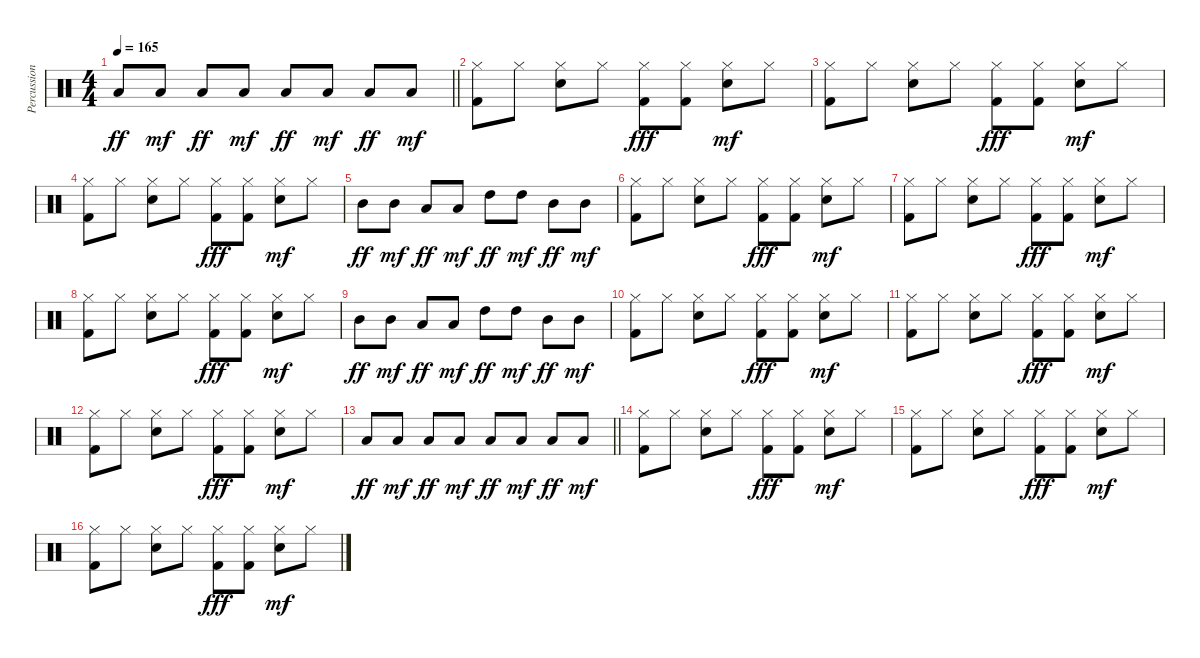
\track ("Percussion" "Percussion") {instrument percussion}
\staff {score}
\articulation defaults
\ts (4 4)
\tempo 165
\clef neutral
\barLineRight lightlight
\ks c "Low Tom (hit)".8{dy ff} "Low Tom (hit)".8{dy mf} "Low Tom (hit)".8{dy ff} "Low Tom (hit)".8{dy mf} "Low Tom (hit)".8{dy ff} "Low Tom (hit)".8{dy mf} "Low Tom (hit)".8{dy ff} "Low Tom (hit)".8{dy mf}
|
("Kick (hit) 2" "Hi-Hat (closed)").8 "Hi-Hat (closed)".8 ("Hi-Hat (closed)" "Electric Snare (hit)").8 "Hi-Hat (closed)".8 ("Hi-Hat (closed)" "Kick (hit) 2").8{dy fff} ("Hi-Hat (closed)" "Kick (hit) 2").8 ("Hi-Hat (closed)" "Electric Snare (hit)").8{dy mf} "Hi-Hat (closed)".8 |
("Kick (hit) 2" "Hi-Hat (closed)").8 "Hi-Hat (closed)".8 ("Hi-Hat (closed)" "Electric Snare (hit)").8 "Hi-Hat (closed)".8 ("Hi-Hat (closed)" "Kick (hit) 2").8{dy fff} ("Hi-Hat (closed)" "Kick (hit) 2").8 ("Hi-Hat (closed)" "Electric Snare (hit)").8{dy mf} "Hi-Hat (closed)".8 |
("Kick (hit) 2" "Hi-Hat (closed)").8 "Hi-Hat (closed)".8 ("Hi-Hat (closed)" "Electric Snare (hit)").8 "Hi-Hat (closed)".8 ("Hi-Hat (closed)" "Kick (hit) 2").8{dy fff} ("Hi-Hat (closed)" "Kick (hit) 2").8 ("Hi-Hat (closed)" "Electric Snare (hit)").8{dy mf} "Hi-Hat (closed)".8 |
"Mid Tom (hit)".8{dy ff} "Mid Tom (hit)".8{dy mf} "Low Tom (hit)".8{dy ff} "Low Tom (hit)".8{dy mf} "High Tom (hit)".8{dy ff} "High Tom (hit)".8{dy mf} "Mid Tom (hit)".8{dy ff} "Mid Tom (hit)".8{dy mf} |
("Kick (hit) 2" "Hi-Hat (closed)").8 "Hi-Hat (closed)".8 ("Hi-Hat (closed)" "Electric Snare (hit)").8 "Hi-Hat (closed)".8 ("Hi-Hat (closed)" "Kick (hit) 2").8{dy fff} ("Hi-Hat (closed)" "Kick (hit) 2").8 ("Hi-Hat (closed)" "Electric Snare (hit)").8{dy mf} "Hi-Hat (closed)".8 |
("Kick (hit) 2" "Hi-Hat (closed)").8 "Hi-Hat (closed)".8 ("Hi-Hat (closed)" "Electric Snare (hit)").8 "Hi-Hat (closed)".8 ("Hi-Hat (closed)" "Kick (hit) 2").8{dy fff} ("Hi-Hat (closed)" "Kick (hit) 2").8 ("Hi-Hat (closed)" "Electric Snare (hit)").8{dy mf} "Hi-Hat (closed)".8 |
("Kick (hit) 2" "Hi-Hat (closed)").8 "Hi-Hat (closed)".8 ("Hi-Hat (closed)" "Electric Snare (hit)").8 "Hi-Hat (closed)".8 ("Hi-Hat (closed)" "Kick (hit) 2").8{dy fff} ("Hi-Hat (closed)" "Kick (hit) 2").8 ("Hi-Hat (closed)" "Electric Snare (hit)").8{dy mf} "Hi-Hat (closed)".8 |
"Mid Tom (hit)".8{dy ff} "Mid Tom (hit)".8{dy mf} "Low Tom (hit)".8{dy ff} "Low Tom (hit)".8{dy mf} "High Tom (hit)".8{dy ff} "High Tom (hit)".8{dy mf} "Mid Tom (hit)".8{dy ff} "Mid Tom (hit)".8{dy mf} |
("Kick (hit) 2" "Hi-Hat (closed)").8 "Hi-Hat (closed)".8 ("Hi-Hat (closed)" "Electric Snare (hit)").8 "Hi-Hat (closed)".8 ("Hi-Hat (closed)" "Kick (hit) 2").8{dy fff} ("Hi-Hat (closed)" "Kick (hit) 2").8 ("Hi-Hat (closed)" "Electric Snare (hit)").8{dy mf} "Hi-Hat (closed)".8 |
("Kick (hit) 2" "Hi-Hat (closed)").8 "Hi-Hat (closed)".8 ("Hi-Hat (closed)" "Electric Snare (hit)").8 "Hi-Hat (closed)".8 ("Hi-Hat (closed)" "Kick (hit) 2").8{dy fff} ("Hi-Hat (closed)" "Kick (hit) 2").8 ("Hi-Hat (closed)" "Electric Snare (hit)").8{dy mf} "Hi-Hat (closed)".8 |
("Kick (hit) 2" "Hi-Hat (closed)").8 "Hi-Hat (closed)".8 ("Hi-Hat (closed)" "Electric Snare (hit)").8 "Hi-Hat (closed)".8 ("Hi-Hat (closed)" "Kick (hit) 2").8{dy fff} ("Hi-Hat (closed)" "Kick (hit) 2").8 ("Hi-Hat (closed)" "Electric Snare (hit)").8{dy mf} "Hi-Hat (closed)".8 |
\barLineRight lightlight "Low Tom (hit)".8{dy ff} "Low Tom (hit)".8{dy mf} "Low Tom (hit)".8{dy ff} "Low Tom (hit)".8{dy mf} "Low Tom (hit)".8{dy ff} "Low Tom (hit)".8{dy mf} "Low Tom (hit)".8{dy ff} "Low Tom (hit)".8{dy mf}
|
("Kick (hit) 2" "Hi-Hat (closed)").8 "Hi-Hat (closed)".8 ("Hi-Hat (closed)" "Electric Snare (hit)").8 "Hi-Hat (closed)".8 ("Hi-Hat (closed)" "Kick (hit) 2").8{dy fff} ("Hi-Hat (closed)" "Kick (hit) 2").8 ("Hi-Hat (closed)" "Electric Snare (hit)").8{dy mf} "Hi-Hat (closed)".8 |
("Kick (hit) 2" "Hi-Hat (closed)").8 "Hi-Hat (closed)".8 ("Hi-Hat (closed)" "Electric Snare (hit)").8 "Hi-Hat (closed)".8 ("Hi-Hat (closed)" "Kick (hit) 2").8{dy fff} ("Hi-Hat (closed)" "Kick (hit) 2").8 ("Hi-Hat (closed)" "Electric Snare (hit)").8{dy mf} "Hi-Hat (closed)".8 |
("Kick (hit) 2" "Hi-Hat (closed)").8 "Hi-Hat (closed)".8 ("Hi-Hat (closed)" "Electric Snare (hit)").8 "Hi-Hat (closed)".8 ("Hi-Hat (closed)" "Kick (hit) 2").8{dy fff} ("Hi-Hat (closed)" "Kick (hit) 2").8 ("Hi-Hat (closed)" "Electric Snare (hit)").8{dy mf} "Hi-Hat (closed)".8
